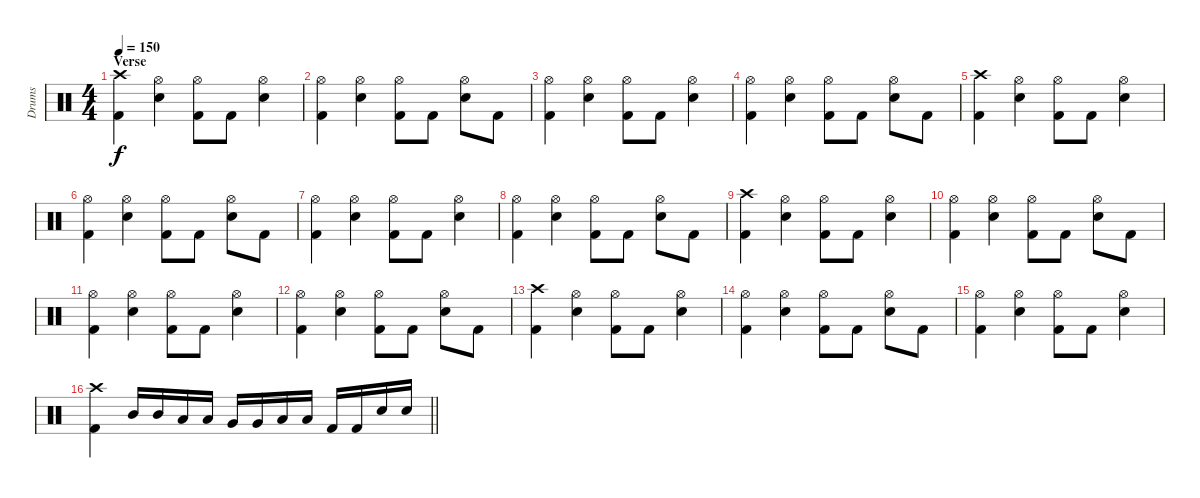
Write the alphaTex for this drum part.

\track ("Drums" "Drums") {instrument percussion}
\staff {score}
\articulation defaults
\ts (4 4)
\section ("" "Verse")
\tempo 150
\clef neutral
\ks c
("Crash high (hit)" "Kick (hit) 2").4{dy f} ("Hi-Hat (open)" "Electric Snare (hit)").4 ("Hi-Hat (open)" "Kick (hit) 2").8 "Kick (hit) 2".8 ("Hi-Hat (open)" "Electric Snare (hit)").4 |
("Hi-Hat (open)" "Kick (hit) 2").4 ("Hi-Hat (open)" "Electric Snare (hit)").4 ("Hi-Hat (open)" "Kick (hit) 2").8 "Kick (hit) 2".8 ("Hi-Hat (open)" "Electric Snare (hit)").8 "Kick (hit) 2".8 |
("Hi-Hat (open)" "Kick (hit) 2").4 ("Hi-Hat (open)" "Electric Snare (hit)").4 ("Hi-Hat (open)" "Kick (hit) 2").8 "Kick (hit) 2".8 ("Hi-Hat (open)" "Electric Snare (hit)").4 |
("Hi-Hat (open)" "Kick (hit) 2").4 ("Hi-Hat (open)" "Electric Snare (hit)").4 ("Hi-Hat (open)" "Kick (hit) 2").8 "Kick (hit) 2".8 ("Hi-Hat (open)" "Electric Snare (hit)").8 "Kick (hit) 2".8 |
("Crash high (hit)" "Kick (hit) 2").4 ("Hi-Hat (open)" "Electric Snare (hit)").4 ("Hi-Hat (open)" "Kick (hit) 2").8 "Kick (hit) 2".8 ("Hi-Hat (open)" "Electric Snare (hit)").4 |
("Hi-Hat (open)" "Kick (hit) 2").4 ("Hi-Hat (open)" "Electric Snare (hit)").4 ("Hi-Hat (open)" "Kick (hit) 2").8 "Kick (hit) 2".8 ("Hi-Hat (open)" "Electric Snare (hit)").8 "Kick (hit) 2".8 |
("Hi-Hat (open)" "Kick (hit) 2").4 ("Hi-Hat (open)" "Electric Snare (hit)").4 ("Hi-Hat (open)" "Kick (hit) 2").8 "Kick (hit) 2".8 ("Hi-Hat (open)" "Electric Snare (hit)").4 |
("Hi-Hat (open)" "Kick (hit) 2").4 ("Hi-Hat (open)" "Electric Snare (hit)").4 ("Hi-Hat (open)" "Kick (hit) 2").8 "Kick (hit) 2".8 ("Hi-Hat (open)" "Electric Snare (hit)").8 "Kick (hit) 2".8 |
("Crash high (hit)" "Kick (hit) 2").4 ("Hi-Hat (open)" "Electric Snare (hit)").4 ("Hi-Hat (open)" "Kick (hit) 2").8 "Kick (hit) 2".8 ("Hi-Hat (open)" "Electric Snare (hit)").4 |
("Hi-Hat (open)" "Kick (hit) 2").4 ("Hi-Hat (open)" "Electric Snare (hit)").4 ("Hi-Hat (open)" "Kick (hit) 2").8 "Kick (hit) 2".8 ("Hi-Hat (open)" "Electric Snare (hit)").8 "Kick (hit) 2".8 |
("Hi-Hat (open)" "Kick (hit) 2").4 ("Hi-Hat (open)" "Electric Snare (hit)").4 ("Hi-Hat (open)" "Kick (hit) 2").8 "Kick (hit) 2".8 ("Hi-Hat (open)" "Electric Snare (hit)").4 |
("Hi-Hat (open)" "Kick (hit) 2").4 ("Hi-Hat (open)" "Electric Snare (hit)").4 ("Hi-Hat (open)" "Kick (hit) 2").8 "Kick (hit) 2".8 ("Hi-Hat (open)" "Electric Snare (hit)").8 "Kick (hit) 2".8 |
("Crash high (hit)" "Kick (hit) 2").4 ("Hi-Hat (open)" "Electric Snare (hit)").4 ("Hi-Hat (open)" "Kick (hit) 2").8 "Kick (hit) 2".8 ("Hi-Hat (open)" "Electric Snare (hit)").4 |
("Hi-Hat (open)" "Kick (hit) 2").4 ("Hi-Hat (open)" "Electric Snare (hit)").4 ("Hi-Hat (open)" "Kick (hit) 2").8 "Kick (hit) 2".8 ("Hi-Hat (open)" "Electric Snare (hit)").8 "Kick (hit) 2".8 |
("Hi-Hat (open)" "Kick (hit) 2").4 ("Hi-Hat (open)" "Electric Snare (hit)").4 ("Hi-Hat (open)" "Kick (hit) 2").8 "Kick (hit) 2".8 ("Hi-Hat (open)" "Electric Snare (hit)").4 |
\barLineRight lightlight
("Crash high (hit)" "Kick (hit) 2").4 "Mid Tom (hit)".16 "Mid Tom (hit)".16 "Low Tom (hit)".16 "Low Tom (hit)".16 "Very Low Tom (hit)".16 "Very Low Tom (hit)".16 "Low Floor Tom (hit)".16 "Low Floor Tom (hit)".16 "Kick (hit) 2".16 "Kick (hit) 2".16 "Electric Snare (hit)".16 "Electric Snare (hit)".16
